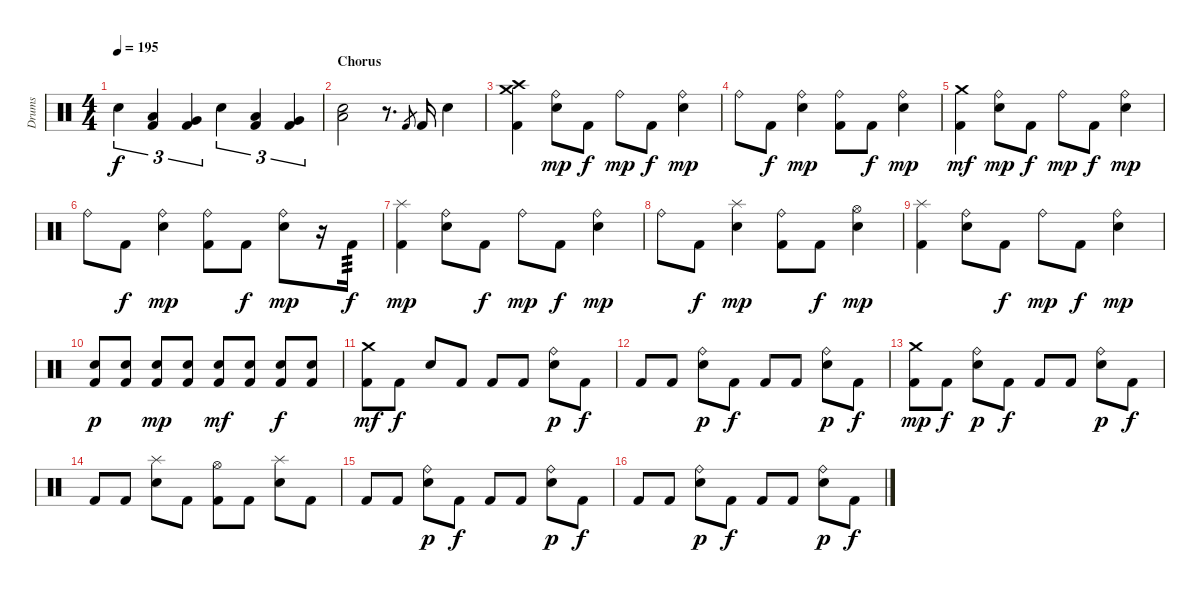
\track ("Drums" "Drums") {instrument percussion}
\staff {score}
\articulation defaults
\ts (4 4)
\tempo 195
\clef neutral
\ks c "Electric Snare (hit)".4{tu (3 2) dy f}
("Low Tom (hit)" "Kick (hit) 2").4{tu (3 2)} ("Very Low Tom (hit)" "Kick (hit) 2").4{tu (3 2)} "Electric Snare (hit)".4{tu (3 2)} ("Low Tom (hit)" "Kick (hit) 2").4{tu (3 2)} ("Very Low Tom (hit)" "Kick (hit) 2").4{tu (3 2)} |
\section ("" "Chorus")
("Electric Snare (hit)" "Low Tom (hit)").2 r.8{d} "Kick (hit) 2".8{gr} "Kick (hit) 2".16 "Electric Snare (hit)".4 |
("Crash medium (hit)" "Crash high (hit)" "Kick (hit) 2").4 ("Ride (bell)" "Electric Snare (hit)").8{dy mp} "Kick (hit) 2".8{dy f} "Ride (bell)".8{dy mp} "Kick (hit) 2".8{dy f} ("Ride (bell)" "Electric Snare (hit)").4{dy mp} |
"Ride (bell)".8 "Kick (hit) 2".8{dy f} ("Ride (bell)" "Electric Snare (hit)").4{dy mp} ("Ride (bell)" "Kick (hit) 2").8 "Kick (hit) 2".8{dy f} ("Ride (bell)" "Electric Snare (hit)").4{dy mp} |
("Crash medium (hit)" "Kick (hit) 2").4{dy mf} ("Ride (bell)" "Electric Snare (hit)").8{dy mp} "Kick (hit) 2".8{dy f} "Ride (bell)".8{dy mp} "Kick (hit) 2".8{dy f} ("Ride (bell)" "Electric Snare (hit)").4{dy mp} |
"Ride (bell)".8 "Kick (hit) 2".8{dy f} ("Ride (bell)" "Electric Snare (hit)").4{dy mp} ("Ride (bell)" "Kick (hit) 2").8 "Kick (hit) 2".8{dy f} ("Ride (bell)" "Electric Snare (hit)").8{dy mp} r.16 "Kick (hit) 2".16{tp 3 dy f} |
("Splash (hit)" "Kick (hit) 2").4{dy mp} ("Ride (bell)" "Electric Snare (hit)").8 "Kick (hit) 2".8{dy f} "Ride (bell)".8{dy mp} "Kick (hit) 2".8{dy f} ("Ride (bell)" "Electric Snare (hit)").4{dy mp} |
"Ride (bell)".8 "Kick (hit) 2".8{dy f} ("Splash (hit)" "Electric Snare (hit)").4{dy mp} ("Ride (bell)" "Kick (hit) 2").8 "Kick (hit) 2".8{dy f} ("Hi-Hat (open)" "Electric Snare (hit)").4{dy mp} |
("Splash (hit)" "Kick (hit) 2").4 ("Ride (bell)" "Electric Snare (hit)").8 "Kick (hit) 2".8{dy f} "Ride (bell)".8{dy mp} "Kick (hit) 2".8{dy f} ("Ride (bell)" "Electric Snare (hit)").4{dy mp} |
("Electric Snare (hit)" "Kick (hit) 2").8{dy p} ("Electric Snare (hit)" "Kick (hit) 2").8 ("Electric Snare (hit)" "Kick (hit) 2").8{dy mp} ("Electric Snare (hit)" "Kick (hit) 2").8 ("Electric Snare (hit)" "Kick (hit) 2").8{dy mf} ("Electric Snare (hit)" "Kick (hit) 2").8 ("Electric Snare (hit)" "Kick (hit) 2").8{dy f} ("Electric Snare (hit)" "Kick (hit) 2").8 |
("Crash medium (hit)" "Kick (hit) 2").8{dy mf} "Kick (hit) 2".8{dy f} "Electric Snare (hit)".8 "Kick (hit) 2".8 "Kick (hit) 2".8 "Kick (hit) 2".8 ("Ride (bell)" "Electric Snare (hit)").8{dy p} "Kick (hit) 2".8{dy f} |
"Kick (hit) 2".8 "Kick (hit) 2".8 ("Ride (bell)" "Electric Snare (hit)").8{dy p} "Kick (hit) 2".8{dy f} "Kick (hit) 2".8 "Kick (hit) 2".8 ("Ride (bell)" "Electric Snare (hit)").8{dy p} "Kick (hit) 2".8{dy f} |
("Crash medium (hit)" "Kick (hit) 2").8{dy mp} "Kick (hit) 2".8{dy f} ("Ride (bell)" "Electric Snare (hit)").8{dy p} "Kick (hit) 2".8{dy f} "Kick (hit) 2".8 "Kick (hit) 2".8 ("Ride (bell)" "Electric Snare (hit)").8{dy p} "Kick (hit) 2".8{dy f} |
"Kick (hit) 2".8 "Kick (hit) 2".8 ("Splash (hit)" "Electric Snare (hit)").8 "Kick (hit) 2".8 ("Hi-Hat (open)" "Kick (hit) 2").8 "Kick (hit) 2".8 ("Splash (hit)" "Electric Snare (hit)").8 "Kick (hit) 2".8 |
"Kick (hit) 2".8 "Kick (hit) 2".8 ("Ride (bell)" "Electric Snare (hit)").8{dy p} "Kick (hit) 2".8{dy f} "Kick (hit) 2".8 "Kick (hit) 2".8 ("Ride (bell)" "Electric Snare (hit)").8{dy p} "Kick (hit) 2".8{dy f} |
"Kick (hit) 2".8 "Kick (hit) 2".8 ("Ride (bell)" "Electric Snare (hit)").8{dy p} "Kick (hit) 2".8{dy f} "Kick (hit) 2".8 "Kick (hit) 2".8 ("Ride (bell)" "Electric Snare (hit)").8{dy p} "Kick (hit) 2".8{dy f}
